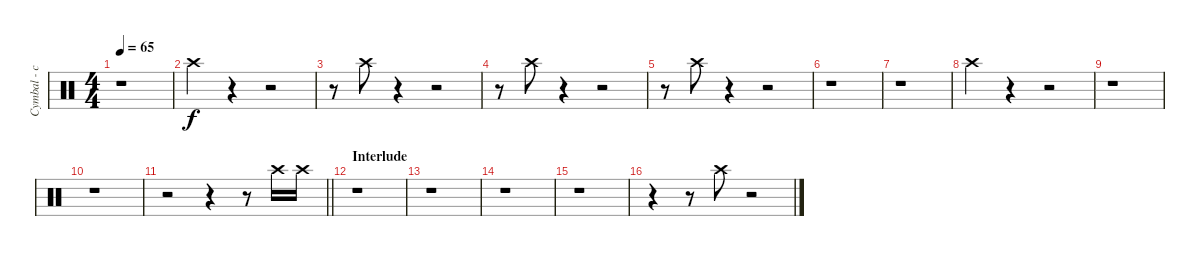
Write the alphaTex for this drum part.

\track ("Cymbal - crash - left" "Cymbal - c") {instrument percussion}
\staff {score}
\articulation defaults
\ts (4 4)
\tempo 65
\clef neutral
\ks c
r.1{dy f} |
"Crash high (hit)".4 r.4 r.2 |
r.8 "Crash high (hit)".8 r.4 r.2 |
r.8 "Crash high (hit)".8 r.4 r.2 |
r.8 "Crash high (hit)".8 r.4 r.2 |
r.1 |
r.1 |
"Crash high (hit)".4 r.4 r.2 |
r.1 |
r.1 |
\barLineRight lightlight
r.2 r.4 r.8 "Crash high (hit)".16 "Crash high (hit)".16 |
\section ("" "Interlude")
r.1 |
r.1 |
r.1 |
r.1 |
r.4{beam merge} r.8 "Crash high (hit)".8 r.2
